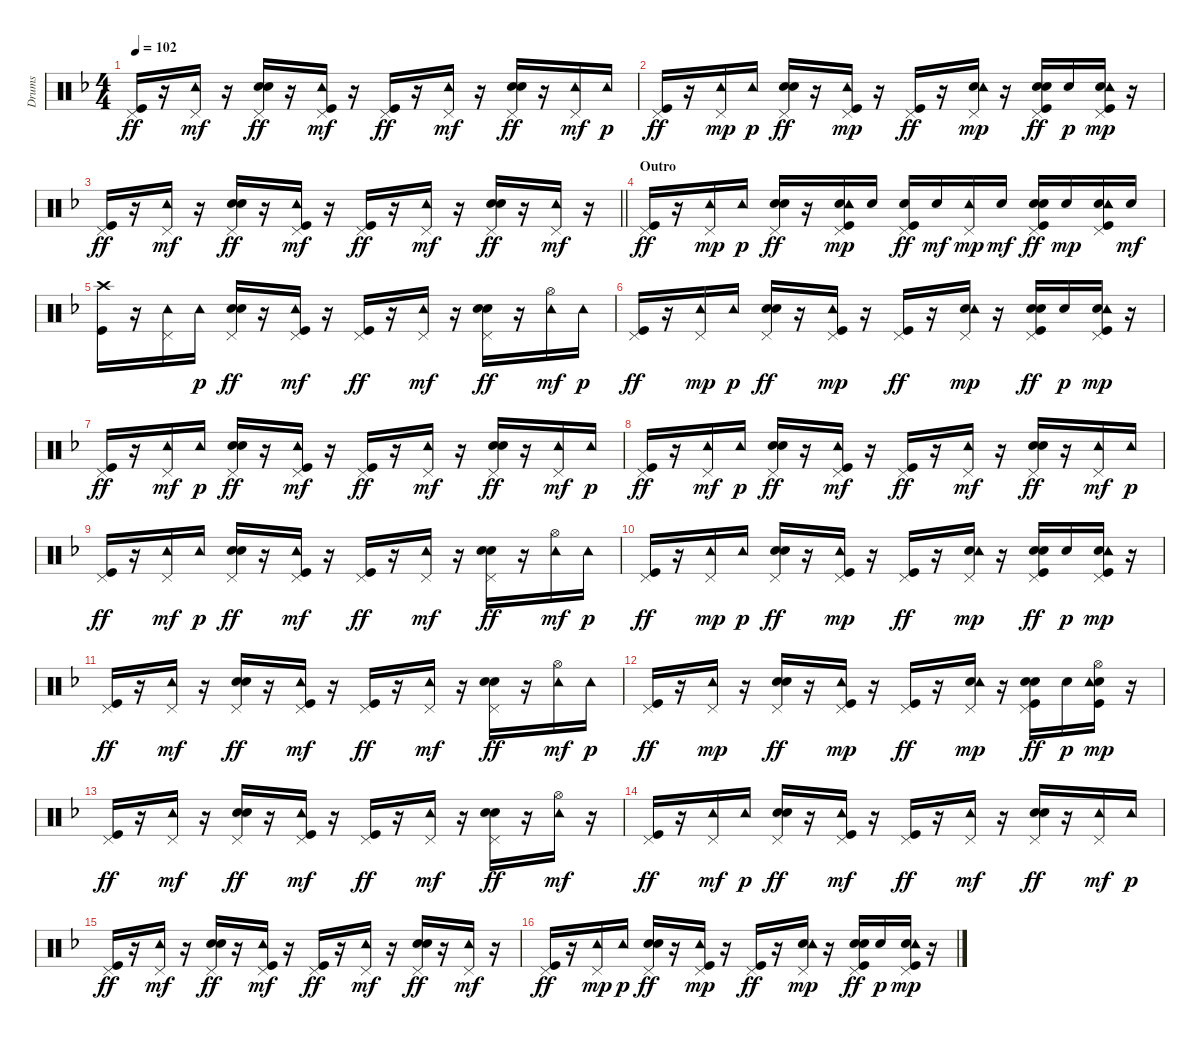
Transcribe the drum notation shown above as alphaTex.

\track ("Drums   " "Drums   ") {instrument percussion}
\staff {score}
\articulation defaults
\ts (4 4)
\tempo 102
\clef neutral
\ks f
("Kick (hit)" "Pedal Hi-Hat (hit)").16{dy ff} r.16 ("Pedal Hi-Hat (hit)" "Tambourine (hit)").16{dy mf} r.16 ("Electric Snare (hit)" "Pedal Hi-Hat (hit)" "Hand Clap (hit)").16{dy ff} r.16 ("Kick (hit)" "Pedal Hi-Hat (hit)" "Tambourine (hit)").16{dy mf} r.16 ("Kick (hit)" "Pedal Hi-Hat (hit)").16{dy ff} r.16 ("Pedal Hi-Hat (hit)" "Tambourine (hit)").16{dy mf} r.16 ("Electric Snare (hit)" "Pedal Hi-Hat (hit)" "Hand Clap (hit)").16{dy ff} r.16 ("Pedal Hi-Hat (hit)" "Tambourine (hit)").16{dy mf} "Tambourine (hit)".16{dy p} |
("Kick (hit)" "Pedal Hi-Hat (hit)").16{dy ff} r.16 ("Pedal Hi-Hat (hit)" "Tambourine (hit)").16{dy mp} "Tambourine (hit)".16{dy p} ("Electric Snare (hit)" "Pedal Hi-Hat (hit)" "Hand Clap (hit)").16{dy ff} r.16 ("Kick (hit)" "Pedal Hi-Hat (hit)" "Tambourine (hit)").16{dy mp} r.16 ("Kick (hit)" "Pedal Hi-Hat (hit)").16{dy ff} r.16 ("Electric Snare (hit)" "Pedal Hi-Hat (hit)" "Tambourine (hit)").16{dy mp} r.16 ("Kick (hit)" "Electric Snare (hit)" "Pedal Hi-Hat (hit)" "Hand Clap (hit)").16{dy ff} "Electric Snare (hit)".16{dy p} ("Kick (hit)" "Electric Snare (hit)" "Pedal Hi-Hat (hit)" "Tambourine (hit)").16{dy mp} r.16 |
\barLineRight lightlight
("Kick (hit)" "Pedal Hi-Hat (hit)").16{dy ff} r.16 ("Pedal Hi-Hat (hit)" "Tambourine (hit)").16{dy mf} r.16 ("Electric Snare (hit)" "Pedal Hi-Hat (hit)" "Hand Clap (hit)").16{dy ff} r.16 ("Kick (hit)" "Pedal Hi-Hat (hit)" "Tambourine (hit)").16{dy mf} r.16 ("Kick (hit)" "Pedal Hi-Hat (hit)").16{dy ff} r.16 ("Pedal Hi-Hat (hit)" "Tambourine (hit)").16{dy mf} r.16 ("Electric Snare (hit)" "Pedal Hi-Hat (hit)" "Hand Clap (hit)").16{dy ff} r.16 ("Pedal Hi-Hat (hit)" "Tambourine (hit)").16{dy mf} r.16 |
\section ("" "Outro")
("Kick (hit)" "Pedal Hi-Hat (hit)").16{dy ff} r.16 ("Pedal Hi-Hat (hit)" "Tambourine (hit)").16{dy mp} "Tambourine (hit)".16{dy p} ("Electric Snare (hit)" "Pedal Hi-Hat (hit)" "Hand Clap (hit)").16{dy ff} r.16 ("Kick (hit)" "Electric Snare (hit)" "Pedal Hi-Hat (hit)" "Tambourine (hit)").16{dy mp} "Electric Snare (hit)".16 ("Kick (hit)" "Electric Snare (hit)" "Pedal Hi-Hat (hit)").16{dy ff} "Electric Snare (hit)".16{dy mf} ("Pedal Hi-Hat (hit)" "Tambourine (hit)").16{dy mp} "Electric Snare (hit)".16{dy mf} ("Kick (hit)" "Electric Snare (hit)" "Pedal Hi-Hat (hit)" "Hand Clap (hit)").16{dy ff} "Electric Snare (hit)".16{dy mp} ("Kick (hit)" "Electric Snare (hit)" "Pedal Hi-Hat (hit)" "Tambourine (hit)").16 "Electric Snare (hit)".16{dy mf} |
("Kick (hit)" "Crash high (hit)").16 r.16 ("Pedal Hi-Hat (hit)" "Tambourine (hit)").16 "Tambourine (hit)".16{dy p} ("Electric Snare (hit)" "Pedal Hi-Hat (hit)" "Hand Clap (hit)").16{dy ff} r.16 ("Kick (hit)" "Pedal Hi-Hat (hit)" "Tambourine (hit)").16{dy mf} r.16 ("Kick (hit)" "Pedal Hi-Hat (hit)").16{dy ff} r.16 ("Pedal Hi-Hat (hit)" "Tambourine (hit)").16{dy mf} r.16 ("Electric Snare (hit)" "Pedal Hi-Hat (hit)" "Hand Clap (hit)").16{dy ff} r.16 ("Hi-Hat (open)" "Tambourine (hit)").16{dy mf} "Tambourine (hit)".16{dy p} |
("Kick (hit)" "Pedal Hi-Hat (hit)").16{dy ff} r.16 ("Pedal Hi-Hat (hit)" "Tambourine (hit)").16{dy mp} "Tambourine (hit)".16{dy p} ("Electric Snare (hit)" "Pedal Hi-Hat (hit)" "Hand Clap (hit)").16{dy ff} r.16 ("Kick (hit)" "Pedal Hi-Hat (hit)" "Tambourine (hit)").16{dy mp} r.16 ("Kick (hit)" "Pedal Hi-Hat (hit)").16{dy ff} r.16 ("Electric Snare (hit)" "Pedal Hi-Hat (hit)" "Tambourine (hit)").16{dy mp} r.16 ("Kick (hit)" "Electric Snare (hit)" "Pedal Hi-Hat (hit)" "Hand Clap (hit)").16{dy ff} "Electric Snare (hit)".16{dy p} ("Kick (hit)" "Electric Snare (hit)" "Pedal Hi-Hat (hit)" "Tambourine (hit)").16{dy mp} r.16 |
("Kick (hit)" "Pedal Hi-Hat (hit)").16{dy ff} r.16 ("Pedal Hi-Hat (hit)" "Tambourine (hit)").16{dy mf} "Tambourine (hit)".16{dy p} ("Electric Snare (hit)" "Pedal Hi-Hat (hit)" "Hand Clap (hit)").16{dy ff} r.16 ("Kick (hit)" "Pedal Hi-Hat (hit)" "Tambourine (hit)").16{dy mf} r.16 ("Kick (hit)" "Pedal Hi-Hat (hit)").16{dy ff} r.16 ("Pedal Hi-Hat (hit)" "Tambourine (hit)").16{dy mf} r.16 ("Electric Snare (hit)" "Pedal Hi-Hat (hit)" "Hand Clap (hit)").16{dy ff} r.16 ("Pedal Hi-Hat (hit)" "Tambourine (hit)").16{dy mf} "Tambourine (hit)".16{dy p} |
("Kick (hit)" "Pedal Hi-Hat (hit)").16{dy ff} r.16 ("Pedal Hi-Hat (hit)" "Tambourine (hit)").16{dy mf} "Tambourine (hit)".16{dy p} ("Electric Snare (hit)" "Pedal Hi-Hat (hit)" "Hand Clap (hit)").16{dy ff} r.16 ("Kick (hit)" "Pedal Hi-Hat (hit)" "Tambourine (hit)").16{dy mf} r.16 ("Kick (hit)" "Pedal Hi-Hat (hit)").16{dy ff} r.16 ("Pedal Hi-Hat (hit)" "Tambourine (hit)").16{dy mf} r.16 ("Electric Snare (hit)" "Pedal Hi-Hat (hit)" "Hand Clap (hit)").16{dy ff} r.16 ("Pedal Hi-Hat (hit)" "Tambourine (hit)").16{dy mf} "Tambourine (hit)".16{dy p} |
("Kick (hit)" "Pedal Hi-Hat (hit)").16{dy ff} r.16 ("Pedal Hi-Hat (hit)" "Tambourine (hit)").16{dy mf} "Tambourine (hit)".16{dy p} ("Electric Snare (hit)" "Pedal Hi-Hat (hit)" "Hand Clap (hit)").16{dy ff} r.16 ("Kick (hit)" "Pedal Hi-Hat (hit)" "Tambourine (hit)").16{dy mf} r.16 ("Kick (hit)" "Pedal Hi-Hat (hit)").16{dy ff} r.16 ("Pedal Hi-Hat (hit)" "Tambourine (hit)").16{dy mf} r.16 ("Electric Snare (hit)" "Pedal Hi-Hat (hit)" "Hand Clap (hit)").16{dy ff} r.16 ("Hi-Hat (open)" "Tambourine (hit)").16{dy mf} "Tambourine (hit)".16{dy p} |
("Kick (hit)" "Pedal Hi-Hat (hit)").16{dy ff} r.16 ("Pedal Hi-Hat (hit)" "Tambourine (hit)").16{dy mp} "Tambourine (hit)".16{dy p} ("Electric Snare (hit)" "Pedal Hi-Hat (hit)" "Hand Clap (hit)").16{dy ff} r.16 ("Kick (hit)" "Pedal Hi-Hat (hit)" "Tambourine (hit)").16{dy mp} r.16 ("Kick (hit)" "Pedal Hi-Hat (hit)").16{dy ff} r.16 ("Electric Snare (hit)" "Pedal Hi-Hat (hit)" "Tambourine (hit)").16{dy mp} r.16 ("Kick (hit)" "Electric Snare (hit)" "Pedal Hi-Hat (hit)" "Hand Clap (hit)").16{dy ff} "Electric Snare (hit)".16{dy p} ("Kick (hit)" "Electric Snare (hit)" "Pedal Hi-Hat (hit)" "Tambourine (hit)").16{dy mp} r.16 |
("Kick (hit)" "Pedal Hi-Hat (hit)").16{dy ff} r.16 ("Pedal Hi-Hat (hit)" "Tambourine (hit)").16{dy mf} r.16 ("Electric Snare (hit)" "Pedal Hi-Hat (hit)" "Hand Clap (hit)").16{dy ff} r.16 ("Kick (hit)" "Pedal Hi-Hat (hit)" "Tambourine (hit)").16{dy mf} r.16 ("Kick (hit)" "Pedal Hi-Hat (hit)").16{dy ff} r.16 ("Pedal Hi-Hat (hit)" "Tambourine (hit)").16{dy mf} r.16 ("Electric Snare (hit)" "Pedal Hi-Hat (hit)" "Hand Clap (hit)").16{dy ff} r.16 ("Hi-Hat (open)" "Tambourine (hit)").16{dy mf} "Tambourine (hit)".16{dy p} |
("Kick (hit)" "Pedal Hi-Hat (hit)").16{dy ff} r.16 ("Pedal Hi-Hat (hit)" "Tambourine (hit)").16{dy mp} r.16 ("Electric Snare (hit)" "Pedal Hi-Hat (hit)" "Hand Clap (hit)").16{dy ff} r.16 ("Kick (hit)" "Pedal Hi-Hat (hit)" "Tambourine (hit)").16{dy mp} r.16 ("Kick (hit)" "Pedal Hi-Hat (hit)").16{dy ff} r.16 ("Electric Snare (hit)" "Pedal Hi-Hat (hit)" "Tambourine (hit)").16{dy mp} r.16 ("Kick (hit)" "Electric Snare (hit)" "Pedal Hi-Hat (hit)" "Hand Clap (hit)").16{dy ff} "Electric Snare (hit)".16{dy p} ("Kick (hit)" "Hi-Hat (open)" "Electric Snare (hit)" "Tambourine (hit)").16{dy mp} r.16 |
("Kick (hit)" "Pedal Hi-Hat (hit)").16{dy ff} r.16 ("Pedal Hi-Hat (hit)" "Tambourine (hit)").16{dy mf} r.16 ("Electric Snare (hit)" "Pedal Hi-Hat (hit)" "Hand Clap (hit)").16{dy ff} r.16 ("Kick (hit)" "Pedal Hi-Hat (hit)" "Tambourine (hit)").16{dy mf} r.16 ("Kick (hit)" "Pedal Hi-Hat (hit)").16{dy ff} r.16 ("Pedal Hi-Hat (hit)" "Tambourine (hit)").16{dy mf} r.16 ("Electric Snare (hit)" "Pedal Hi-Hat (hit)" "Hand Clap (hit)").16{dy ff} r.16 ("Hi-Hat (open)" "Tambourine (hit)").16{dy mf} r.16 |
("Kick (hit)" "Pedal Hi-Hat (hit)").16{dy ff} r.16 ("Pedal Hi-Hat (hit)" "Tambourine (hit)").16{dy mf} "Tambourine (hit)".16{dy p} ("Electric Snare (hit)" "Pedal Hi-Hat (hit)" "Hand Clap (hit)").16{dy ff} r.16 ("Kick (hit)" "Pedal Hi-Hat (hit)" "Tambourine (hit)").16{dy mf} r.16 ("Kick (hit)" "Pedal Hi-Hat (hit)").16{dy ff} r.16 ("Pedal Hi-Hat (hit)" "Tambourine (hit)").16{dy mf} r.16 ("Electric Snare (hit)" "Pedal Hi-Hat (hit)" "Hand Clap (hit)").16{dy ff} r.16 ("Pedal Hi-Hat (hit)" "Tambourine (hit)").16{dy mf} "Tambourine (hit)".16{dy p} |
("Kick (hit)" "Pedal Hi-Hat (hit)").16{dy ff} r.16 ("Pedal Hi-Hat (hit)" "Tambourine (hit)").16{dy mf} r.16 ("Electric Snare (hit)" "Pedal Hi-Hat (hit)" "Hand Clap (hit)").16{dy ff} r.16 ("Kick (hit)" "Pedal Hi-Hat (hit)" "Tambourine (hit)").16{dy mf} r.16 ("Kick (hit)" "Pedal Hi-Hat (hit)").16{dy ff} r.16 ("Pedal Hi-Hat (hit)" "Tambourine (hit)").16{dy mf} r.16 ("Electric Snare (hit)" "Pedal Hi-Hat (hit)" "Hand Clap (hit)").16{dy ff} r.16 ("Pedal Hi-Hat (hit)" "Tambourine (hit)").16{dy mf} r.16 |
("Kick (hit)" "Pedal Hi-Hat (hit)").16{dy ff} r.16 ("Pedal Hi-Hat (hit)" "Tambourine (hit)").16{dy mp} "Tambourine (hit)".16{dy p} ("Electric Snare (hit)" "Pedal Hi-Hat (hit)" "Hand Clap (hit)").16{dy ff} r.16 ("Kick (hit)" "Pedal Hi-Hat (hit)" "Tambourine (hit)").16{dy mp} r.16 ("Kick (hit)" "Pedal Hi-Hat (hit)").16{dy ff} r.16 ("Electric Snare (hit)" "Pedal Hi-Hat (hit)" "Tambourine (hit)").16{dy mp} r.16 ("Kick (hit)" "Electric Snare (hit)" "Pedal Hi-Hat (hit)" "Hand Clap (hit)").16{dy ff} "Electric Snare (hit)".16{dy p} ("Kick (hit)" "Electric Snare (hit)" "Pedal Hi-Hat (hit)" "Tambourine (hit)").16{dy mp} r.16
